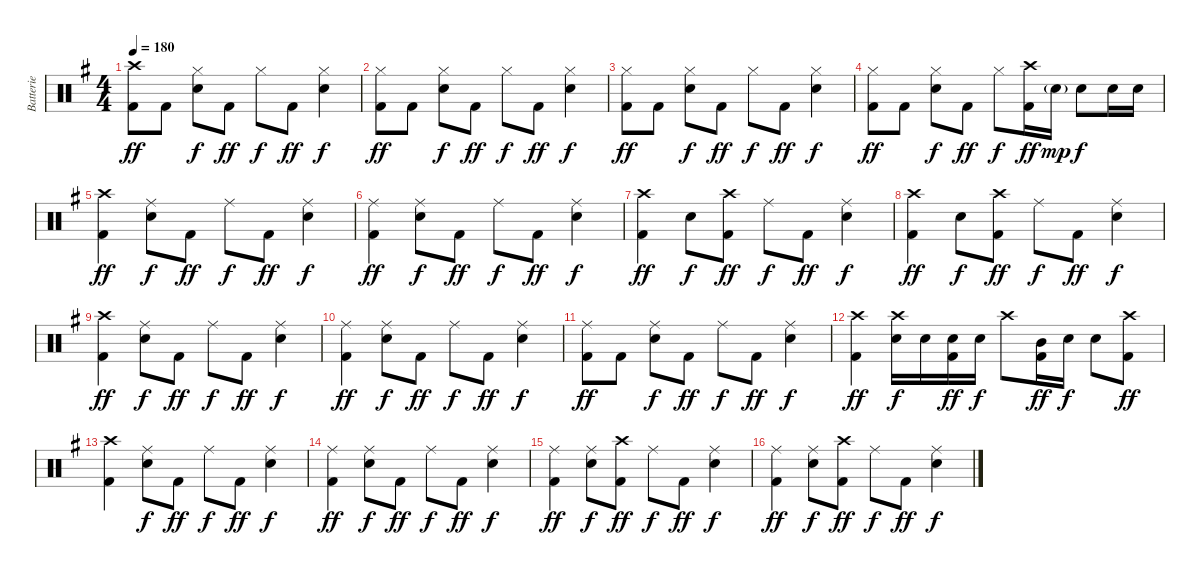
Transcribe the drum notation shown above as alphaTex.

\track ("Batterie" "Batterie") {instrument percussion}
\staff {score}
\articulation defaults
\ts (4 4)
\tempo 180
\clef neutral
\ks g
("Crash high (hit)" "Kick (hit) 2").8{dy ff} "Kick (hit) 2".8 ("Hi-Hat (closed)" "Snare (hit) 2").8{dy f} "Kick (hit) 2".8{dy ff} "Hi-Hat (closed)".8{dy f} "Kick (hit) 2".8{dy ff} ("Hi-Hat (closed)" "Snare (hit) 2").4{dy f} |
("Hi-Hat (closed)" "Kick (hit) 2").8{dy ff} "Kick (hit) 2".8 ("Hi-Hat (closed)" "Snare (hit) 2").8{dy f} "Kick (hit) 2".8{dy ff} "Hi-Hat (closed)".8{dy f} "Kick (hit) 2".8{dy ff} ("Hi-Hat (closed)" "Snare (hit) 2").4{dy f} |
("Hi-Hat (closed)" "Kick (hit) 2").8{dy ff} "Kick (hit) 2".8 ("Hi-Hat (closed)" "Snare (hit) 2").8{dy f} "Kick (hit) 2".8{dy ff} "Hi-Hat (closed)".8{dy f} "Kick (hit) 2".8{dy ff} ("Hi-Hat (closed)" "Snare (hit) 2").4{dy f} |
("Hi-Hat (closed)" "Kick (hit) 2").8{dy ff} "Kick (hit) 2".8 ("Hi-Hat (closed)" "Snare (hit) 2").8{dy f} "Kick (hit) 2".8{dy ff} "Hi-Hat (closed)".8{dy f} ("Crash high (hit)" "Kick (hit) 2").16{dy ff} "Snare (hit) 2"{g}.16{dy mp} "Snare (hit) 2".8{dy f} "Snare (hit) 2".16 "Snare (hit) 2".16 |
("Crash high (hit)" "Kick (hit) 2").4{dy ff} ("Ride (middle)" "Snare (hit) 2").8{dy f} "Kick (hit) 2".8{dy ff} "Ride (middle)".8{dy f} "Kick (hit) 2".8{dy ff} ("Ride (middle)" "Snare (hit) 2").4{dy f} |
("Ride (middle)" "Kick (hit) 2").4{dy ff} ("Ride (middle)" "Snare (hit) 2").8{dy f} "Kick (hit) 2".8{dy ff} "Ride (middle)".8{dy f} "Kick (hit) 2".8{dy ff} ("Ride (middle)" "Snare (hit) 2").4{dy f} |
("Crash high (hit)" "Kick (hit) 2").4{dy ff} "Snare (hit) 2".8{dy f} ("Crash high (hit)" "Kick (hit) 2").8{dy ff} "Ride (middle)".8{dy f} "Kick (hit) 2".8{dy ff} ("Ride (middle)" "Snare (hit) 2").4{dy f} |
("Crash high (hit)" "Kick (hit) 2").4{dy ff} "Snare (hit) 2".8{dy f} ("Crash high (hit)" "Kick (hit) 2").8{dy ff} "Ride (middle)".8{dy f} "Kick (hit) 2".8{dy ff} ("Ride (middle)" "Snare (hit) 2").4{dy f} |
("Crash high (hit)" "Kick (hit) 2").4{dy ff} ("Ride (middle)" "Snare (hit) 2").8{dy f} "Kick (hit) 2".8{dy ff} "Ride (middle)".8{dy f} "Kick (hit) 2".8{dy ff} ("Ride (middle)" "Snare (hit) 2").4{dy f} |
("Ride (middle)" "Kick (hit) 2").4{dy ff} ("Ride (middle)" "Snare (hit) 2").8{dy f} "Kick (hit) 2".8{dy ff} "Ride (middle)".8{dy f} "Kick (hit) 2".8{dy ff} ("Ride (middle)" "Snare (hit) 2").4{dy f} |
("Ride (middle)" "Kick (hit) 2").8{dy ff} "Kick (hit) 2".8 ("Ride (middle)" "Snare (hit) 2").8{dy f} "Kick (hit) 2".8{dy ff} "Ride (middle)".8{dy f} "Kick (hit) 2".8{dy ff} ("Ride (middle)" "Snare (hit) 2").4{dy f} |
("Crash high (hit)" "Kick (hit) 2").4{dy ff} ("Crash high (hit)" "Snare (hit) 2").16{dy f} "Snare (hit) 2".16 ("Snare (hit) 2" "Kick (hit) 2").16{dy ff} "Snare (hit) 2".16{dy f} "Crash high (hit)".8 ("Mid Tom (hit)" "Kick (hit) 2").16{dy ff} "Snare (hit) 2".16{dy f} "Snare (hit) 2".8 ("Crash high (hit)" "Kick (hit) 2").8{dy ff} |
("Crash high (hit)" "Kick (hit) 2").4 ("Ride (middle)" "Snare (hit) 2").8{dy f} "Kick (hit) 2".8{dy ff} "Ride (middle)".8{dy f} "Kick (hit) 2".8{dy ff} ("Ride (middle)" "Snare (hit) 2").4{dy f} |
("Ride (middle)" "Kick (hit) 2").4{dy ff} ("Ride (middle)" "Snare (hit) 2").8{dy f} "Kick (hit) 2".8{dy ff} "Ride (middle)".8{dy f} "Kick (hit) 2".8{dy ff} ("Ride (middle)" "Snare (hit) 2").4{dy f} |
("Ride (middle)" "Kick (hit) 2").4{dy ff} ("Ride (middle)" "Snare (hit) 2").8{dy f} ("Crash high (hit)" "Kick (hit) 2").8{dy ff} "Ride (middle)".8{dy f} "Kick (hit) 2".8{dy ff} ("Ride (middle)" "Snare (hit) 2").4{dy f} |
("Ride (middle)" "Kick (hit) 2").4{dy ff} ("Ride (middle)" "Snare (hit) 2").8{dy f} ("Crash high (hit)" "Kick (hit) 2").8{dy ff} "Ride (middle)".8{dy f} "Kick (hit) 2".8{dy ff} ("Ride (middle)" "Snare (hit) 2").4{dy f}
